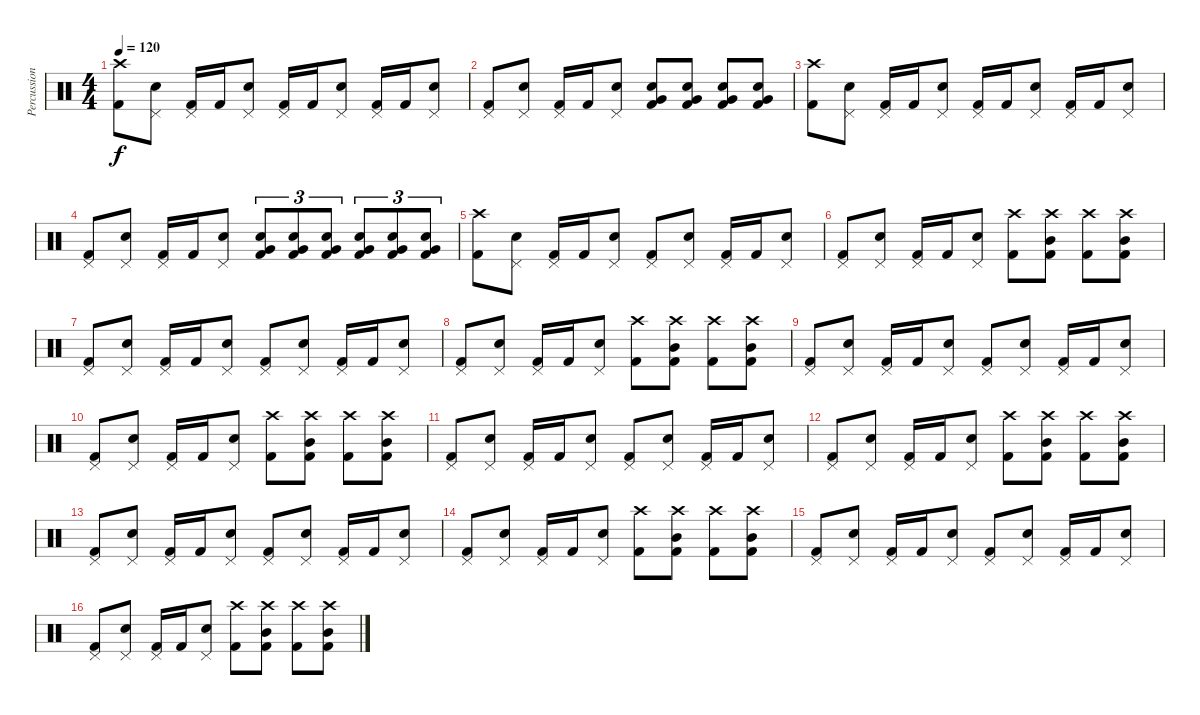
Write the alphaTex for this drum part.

\track ("Percussion" "Percussion") {instrument percussion}
\staff {score}
\articulation defaults
\ts (4 4)
\tempo 120
\clef neutral
\ks c
("Crash high (hit)" "Kick (hit) 2").8{dy f} ("Pedal Hi-Hat (hit)" "Snare (hit) 2").8 ("Pedal Hi-Hat (hit)" "Kick (hit) 2").16 "Kick (hit) 2".16 ("Pedal Hi-Hat (hit)" "Snare (hit) 2").8 ("Pedal Hi-Hat (hit)" "Kick (hit) 2").16 "Kick (hit) 2".16 ("Pedal Hi-Hat (hit)" "Snare (hit) 2").8 ("Pedal Hi-Hat (hit)" "Kick (hit) 2").16 "Kick (hit) 2".16 ("Pedal Hi-Hat (hit)" "Snare (hit) 2").8 |
("Pedal Hi-Hat (hit)" "Kick (hit) 2").8 ("Pedal Hi-Hat (hit)" "Snare (hit) 2").8 ("Pedal Hi-Hat (hit)" "Kick (hit) 2").16 "Kick (hit) 2".16 ("Pedal Hi-Hat (hit)" "Snare (hit) 2").8 ("Snare (hit) 2" "Very Low Tom (hit)" "Kick (hit) 2").8 ("Snare (hit) 2" "Very Low Tom (hit)" "Kick (hit) 2").8 ("Snare (hit) 2" "Very Low Tom (hit)" "Kick (hit) 2").8 ("Snare (hit) 2" "Very Low Tom (hit)" "Kick (hit) 2").8 |
("Crash high (hit)" "Kick (hit) 2").8 ("Pedal Hi-Hat (hit)" "Snare (hit) 2").8 ("Pedal Hi-Hat (hit)" "Kick (hit) 2").16 "Kick (hit) 2".16 ("Pedal Hi-Hat (hit)" "Snare (hit) 2").8 ("Pedal Hi-Hat (hit)" "Kick (hit) 2").16 "Kick (hit) 2".16 ("Pedal Hi-Hat (hit)" "Snare (hit) 2").8 ("Pedal Hi-Hat (hit)" "Kick (hit) 2").16 "Kick (hit) 2".16 ("Pedal Hi-Hat (hit)" "Snare (hit) 2").8 |
("Pedal Hi-Hat (hit)" "Kick (hit) 2").8 ("Pedal Hi-Hat (hit)" "Snare (hit) 2").8 ("Pedal Hi-Hat (hit)" "Kick (hit) 2").16 "Kick (hit) 2".16 ("Pedal Hi-Hat (hit)" "Snare (hit) 2").8 ("Snare (hit) 2" "Very Low Tom (hit)" "Kick (hit) 2").8{tu (3 2)} ("Snare (hit) 2" "Very Low Tom (hit)" "Kick (hit) 2").8{tu (3 2)} ("Snare (hit) 2" "Very Low Tom (hit)" "Kick (hit) 2").8{tu (3 2)} ("Snare (hit) 2" "Very Low Tom (hit)" "Kick (hit) 2").8{tu (3 2)} ("Snare (hit) 2" "Very Low Tom (hit)" "Kick (hit) 2").8{tu (3 2)} ("Snare (hit) 2" "Very Low Tom (hit)" "Kick (hit) 2").8{tu (3 2)} |
("Crash high (hit)" "Kick (hit) 2").8 ("Pedal Hi-Hat (hit)" "Snare (hit) 2").8 ("Pedal Hi-Hat (hit)" "Kick (hit) 2").16 "Kick (hit) 2".16 ("Pedal Hi-Hat (hit)" "Snare (hit) 2").8 ("Pedal Hi-Hat (hit)" "Kick (hit) 2").8 ("Pedal Hi-Hat (hit)" "Snare (hit) 2").8 ("Pedal Hi-Hat (hit)" "Kick (hit) 2").16 "Kick (hit) 2".16 ("Pedal Hi-Hat (hit)" "Snare (hit) 2").8 |
("Pedal Hi-Hat (hit)" "Kick (hit) 2").8 ("Pedal Hi-Hat (hit)" "Snare (hit) 2").8 ("Pedal Hi-Hat (hit)" "Kick (hit) 2").16 "Kick (hit) 2".16 ("Pedal Hi-Hat (hit)" "Snare (hit) 2").8 ("Crash high (hit)" "Kick (hit) 2").8 ("Crash high (hit)" "Mid Tom (hit)" "Kick (hit) 2").8 ("Crash high (hit)" "Kick (hit) 2").8 ("Crash high (hit)" "Mid Tom (hit)" "Kick (hit) 2").8 |
("Pedal Hi-Hat (hit)" "Kick (hit) 2").8 ("Pedal Hi-Hat (hit)" "Snare (hit) 2").8 ("Pedal Hi-Hat (hit)" "Kick (hit) 2").16 "Kick (hit) 2".16 ("Pedal Hi-Hat (hit)" "Snare (hit) 2").8 ("Pedal Hi-Hat (hit)" "Kick (hit) 2").8 ("Pedal Hi-Hat (hit)" "Snare (hit) 2").8 ("Pedal Hi-Hat (hit)" "Kick (hit) 2").16 "Kick (hit) 2".16 ("Pedal Hi-Hat (hit)" "Snare (hit) 2").8 |
("Pedal Hi-Hat (hit)" "Kick (hit) 2").8 ("Pedal Hi-Hat (hit)" "Snare (hit) 2").8 ("Pedal Hi-Hat (hit)" "Kick (hit) 2").16 "Kick (hit) 2".16 ("Pedal Hi-Hat (hit)" "Snare (hit) 2").8 ("Crash high (hit)" "Kick (hit) 2").8 ("Crash high (hit)" "Mid Tom (hit)" "Kick (hit) 2").8 ("Crash high (hit)" "Kick (hit) 2").8 ("Crash high (hit)" "Mid Tom (hit)" "Kick (hit) 2").8 |
("Pedal Hi-Hat (hit)" "Kick (hit) 2").8 ("Pedal Hi-Hat (hit)" "Snare (hit) 2").8 ("Pedal Hi-Hat (hit)" "Kick (hit) 2").16 "Kick (hit) 2".16 ("Pedal Hi-Hat (hit)" "Snare (hit) 2").8 ("Pedal Hi-Hat (hit)" "Kick (hit) 2").8 ("Pedal Hi-Hat (hit)" "Snare (hit) 2").8 ("Pedal Hi-Hat (hit)" "Kick (hit) 2").16 "Kick (hit) 2".16 ("Pedal Hi-Hat (hit)" "Snare (hit) 2").8 |
("Pedal Hi-Hat (hit)" "Kick (hit) 2").8 ("Pedal Hi-Hat (hit)" "Snare (hit) 2").8 ("Pedal Hi-Hat (hit)" "Kick (hit) 2").16 "Kick (hit) 2".16 ("Pedal Hi-Hat (hit)" "Snare (hit) 2").8 ("Crash high (hit)" "Kick (hit) 2").8 ("Crash high (hit)" "Mid Tom (hit)" "Kick (hit) 2").8 ("Crash high (hit)" "Kick (hit) 2").8 ("Crash high (hit)" "Mid Tom (hit)" "Kick (hit) 2").8 |
("Pedal Hi-Hat (hit)" "Kick (hit) 2").8 ("Pedal Hi-Hat (hit)" "Snare (hit) 2").8 ("Pedal Hi-Hat (hit)" "Kick (hit) 2").16 "Kick (hit) 2".16 ("Pedal Hi-Hat (hit)" "Snare (hit) 2").8 ("Pedal Hi-Hat (hit)" "Kick (hit) 2").8 ("Pedal Hi-Hat (hit)" "Snare (hit) 2").8 ("Pedal Hi-Hat (hit)" "Kick (hit) 2").16 "Kick (hit) 2".16 ("Pedal Hi-Hat (hit)" "Snare (hit) 2").8 |
("Pedal Hi-Hat (hit)" "Kick (hit) 2").8 ("Pedal Hi-Hat (hit)" "Snare (hit) 2").8 ("Pedal Hi-Hat (hit)" "Kick (hit) 2").16 "Kick (hit) 2".16 ("Pedal Hi-Hat (hit)" "Snare (hit) 2").8 ("Crash high (hit)" "Kick (hit) 2").8 ("Crash high (hit)" "Mid Tom (hit)" "Kick (hit) 2").8 ("Crash high (hit)" "Kick (hit) 2").8 ("Crash high (hit)" "Mid Tom (hit)" "Kick (hit) 2").8 |
("Pedal Hi-Hat (hit)" "Kick (hit) 2").8 ("Pedal Hi-Hat (hit)" "Snare (hit) 2").8 ("Pedal Hi-Hat (hit)" "Kick (hit) 2").16 "Kick (hit) 2".16 ("Pedal Hi-Hat (hit)" "Snare (hit) 2").8 ("Pedal Hi-Hat (hit)" "Kick (hit) 2").8 ("Pedal Hi-Hat (hit)" "Snare (hit) 2").8 ("Pedal Hi-Hat (hit)" "Kick (hit) 2").16 "Kick (hit) 2".16 ("Pedal Hi-Hat (hit)" "Snare (hit) 2").8 |
("Pedal Hi-Hat (hit)" "Kick (hit) 2").8 ("Pedal Hi-Hat (hit)" "Snare (hit) 2").8 ("Pedal Hi-Hat (hit)" "Kick (hit) 2").16 "Kick (hit) 2".16 ("Pedal Hi-Hat (hit)" "Snare (hit) 2").8 ("Crash high (hit)" "Kick (hit) 2").8 ("Crash high (hit)" "Mid Tom (hit)" "Kick (hit) 2").8 ("Crash high (hit)" "Kick (hit) 2").8 ("Crash high (hit)" "Mid Tom (hit)" "Kick (hit) 2").8 |
("Pedal Hi-Hat (hit)" "Kick (hit) 2").8 ("Pedal Hi-Hat (hit)" "Snare (hit) 2").8 ("Pedal Hi-Hat (hit)" "Kick (hit) 2").16 "Kick (hit) 2".16 ("Pedal Hi-Hat (hit)" "Snare (hit) 2").8 ("Pedal Hi-Hat (hit)" "Kick (hit) 2").8 ("Pedal Hi-Hat (hit)" "Snare (hit) 2").8 ("Pedal Hi-Hat (hit)" "Kick (hit) 2").16 "Kick (hit) 2".16 ("Pedal Hi-Hat (hit)" "Snare (hit) 2").8 |
("Pedal Hi-Hat (hit)" "Kick (hit) 2").8 ("Pedal Hi-Hat (hit)" "Snare (hit) 2").8 ("Pedal Hi-Hat (hit)" "Kick (hit) 2").16 "Kick (hit) 2".16 ("Pedal Hi-Hat (hit)" "Snare (hit) 2").8 ("Crash high (hit)" "Kick (hit) 2").8 ("Crash high (hit)" "Mid Tom (hit)" "Kick (hit) 2").8 ("Crash high (hit)" "Kick (hit) 2").8 ("Crash high (hit)" "Mid Tom (hit)" "Kick (hit) 2").8
